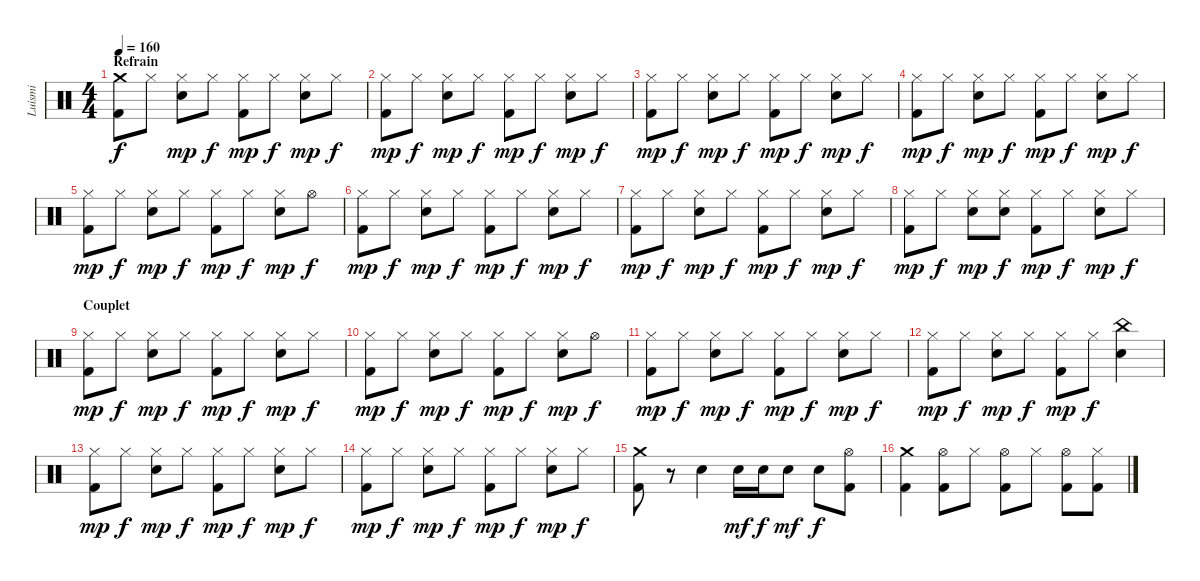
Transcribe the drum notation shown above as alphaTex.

\track ("Luismi" "Luismi") {instrument percussion}
\staff {score}
\articulation defaults
\ts (4 4)
\section ("" "Refrain")
\tempo 160
\clef neutral
\ks c
("Crash medium (hit)" "Kick (hit) 2").8{dy f} "Hi-Hat (closed)".8 ("Hi-Hat (closed)" "Snare (hit) 2").8{dy mp} "Hi-Hat (closed)".8{dy f} ("Hi-Hat (closed)" "Kick (hit) 2").8{dy mp} "Hi-Hat (closed)".8{dy f} ("Hi-Hat (closed)" "Snare (hit) 2").8{dy mp} "Hi-Hat (closed)".8{dy f} |
("Hi-Hat (closed)" "Kick (hit) 2").8{dy mp} "Hi-Hat (closed)".8{dy f} ("Hi-Hat (closed)" "Snare (hit) 2").8{dy mp} "Hi-Hat (closed)".8{dy f} ("Hi-Hat (closed)" "Kick (hit) 2").8{dy mp} "Hi-Hat (closed)".8{dy f} ("Hi-Hat (closed)" "Snare (hit) 2").8{dy mp} "Hi-Hat (closed)".8{dy f} |
("Hi-Hat (closed)" "Kick (hit) 2").8{dy mp} "Hi-Hat (closed)".8{dy f} ("Hi-Hat (closed)" "Snare (hit) 2").8{dy mp} "Hi-Hat (closed)".8{dy f} ("Hi-Hat (closed)" "Kick (hit) 2").8{dy mp} "Hi-Hat (closed)".8{dy f} ("Hi-Hat (closed)" "Snare (hit) 2").8{dy mp} "Hi-Hat (closed)".8{dy f} |
("Hi-Hat (closed)" "Kick (hit) 2").8{dy mp} "Hi-Hat (closed)".8{dy f} ("Hi-Hat (closed)" "Snare (hit) 2").8{dy mp} "Hi-Hat (closed)".8{dy f} ("Hi-Hat (closed)" "Kick (hit) 2").8{dy mp} "Hi-Hat (closed)".8{dy f} ("Hi-Hat (closed)" "Snare (hit) 2").8{dy mp} "Hi-Hat (closed)".8{dy f} |
("Hi-Hat (closed)" "Kick (hit) 2").8{dy mp} "Hi-Hat (closed)".8{dy f} ("Hi-Hat (closed)" "Snare (hit) 2").8{dy mp} "Hi-Hat (closed)".8{dy f} ("Hi-Hat (closed)" "Kick (hit) 2").8{dy mp} "Hi-Hat (closed)".8{dy f} ("Hi-Hat (closed)" "Snare (hit) 2").8{dy mp} "Hi-Hat (open)".8{dy f} |
("Hi-Hat (closed)" "Kick (hit) 2").8{dy mp} "Hi-Hat (closed)".8{dy f} ("Hi-Hat (closed)" "Snare (hit) 2").8{dy mp} "Hi-Hat (closed)".8{dy f} ("Hi-Hat (closed)" "Kick (hit) 2").8{dy mp} "Hi-Hat (closed)".8{dy f} ("Hi-Hat (closed)" "Snare (hit) 2").8{dy mp} "Hi-Hat (closed)".8{dy f} |
("Hi-Hat (closed)" "Kick (hit) 2").8{dy mp} "Hi-Hat (closed)".8{dy f} ("Hi-Hat (closed)" "Snare (hit) 2").8{dy mp} "Hi-Hat (closed)".8{dy f} ("Hi-Hat (closed)" "Kick (hit) 2").8{dy mp} "Hi-Hat (closed)".8{dy f} ("Hi-Hat (closed)" "Snare (hit) 2").8{dy mp} "Hi-Hat (closed)".8{dy f} |
("Hi-Hat (closed)" "Kick (hit) 2").8{dy mp} "Hi-Hat (closed)".8{dy f} ("Hi-Hat (closed)" "Snare (hit) 2").8{dy mp} ("Hi-Hat (closed)" "Snare (hit) 2").8{dy f} ("Hi-Hat (closed)" "Kick (hit) 2").8{dy mp} "Hi-Hat (closed)".8{dy f} ("Hi-Hat (closed)" "Snare (hit) 2").8{dy mp} "Hi-Hat (closed)".8{dy f} |
\section ("" "Couplet")
("Hi-Hat (closed)" "Kick (hit) 2").8{dy mp} "Hi-Hat (closed)".8{dy f} ("Hi-Hat (closed)" "Snare (hit) 2").8{dy mp} "Hi-Hat (closed)".8{dy f} ("Hi-Hat (closed)" "Kick (hit) 2").8{dy mp} "Hi-Hat (closed)".8{dy f} ("Hi-Hat (closed)" "Snare (hit) 2").8{dy mp} "Hi-Hat (closed)".8{dy f} |
("Hi-Hat (closed)" "Kick (hit) 2").8{dy mp} "Hi-Hat (closed)".8{dy f} ("Hi-Hat (closed)" "Snare (hit) 2").8{dy mp} "Hi-Hat (closed)".8{dy f} ("Hi-Hat (closed)" "Kick (hit) 2").8{dy mp} "Hi-Hat (closed)".8{dy f} ("Hi-Hat (closed)" "Snare (hit) 2").8{dy mp} "Hi-Hat (open)".8{dy f} |
("Hi-Hat (closed)" "Kick (hit) 2").8{dy mp} "Hi-Hat (closed)".8{dy f} ("Hi-Hat (closed)" "Snare (hit) 2").8{dy mp} "Hi-Hat (closed)".8{dy f} ("Hi-Hat (closed)" "Kick (hit) 2").8{dy mp} "Hi-Hat (closed)".8{dy f} ("Hi-Hat (closed)" "Snare (hit) 2").8{dy mp} "Hi-Hat (closed)".8{dy f} |
("Hi-Hat (closed)" "Kick (hit) 2").8{dy mp} "Hi-Hat (closed)".8{dy f} ("Hi-Hat (closed)" "Snare (hit) 2").8{dy mp} "Hi-Hat (closed)".8{dy f} ("Hi-Hat (closed)" "Kick (hit) 2").8{dy mp} "Hi-Hat (closed)".8{dy f} ("China (hit)" "Snare (hit) 2").4 |
("Hi-Hat (closed)" "Kick (hit) 2").8{dy mp} "Hi-Hat (closed)".8{dy f} ("Hi-Hat (closed)" "Snare (hit) 2").8{dy mp} "Hi-Hat (closed)".8{dy f} ("Hi-Hat (closed)" "Kick (hit) 2").8{dy mp} "Hi-Hat (closed)".8{dy f} ("Hi-Hat (closed)" "Snare (hit) 2").8{dy mp} "Hi-Hat (closed)".8{dy f} |
("Hi-Hat (closed)" "Kick (hit) 2").8{dy mp} "Hi-Hat (closed)".8{dy f} ("Hi-Hat (closed)" "Snare (hit) 2").8{dy mp} "Hi-Hat (closed)".8{dy f} ("Hi-Hat (closed)" "Kick (hit) 2").8{dy mp} "Hi-Hat (closed)".8{dy f} ("Hi-Hat (closed)" "Snare (hit) 2").8{dy mp} "Hi-Hat (closed)".8{dy f} |
("Crash medium (hit)" "Kick (hit) 2").8 r.8 "Snare (hit) 2".4 "Snare (hit) 2".16{dy mf} "Snare (hit) 2".16{dy f} "Snare (hit) 2".8{dy mf} "Snare (hit) 2".8{dy f} ("Hi-Hat (open)" "Kick (hit) 2").8 |
("Crash medium (hit)" "Kick (hit) 2").4 ("Hi-Hat (open)" "Kick (hit) 2").8 "Hi-Hat (closed)".8 ("Hi-Hat (open)" "Kick (hit) 2").8 "Hi-Hat (closed)".8 ("Hi-Hat (open)" "Kick (hit) 2").8 ("Hi-Hat (closed)" "Kick (hit) 2").8
